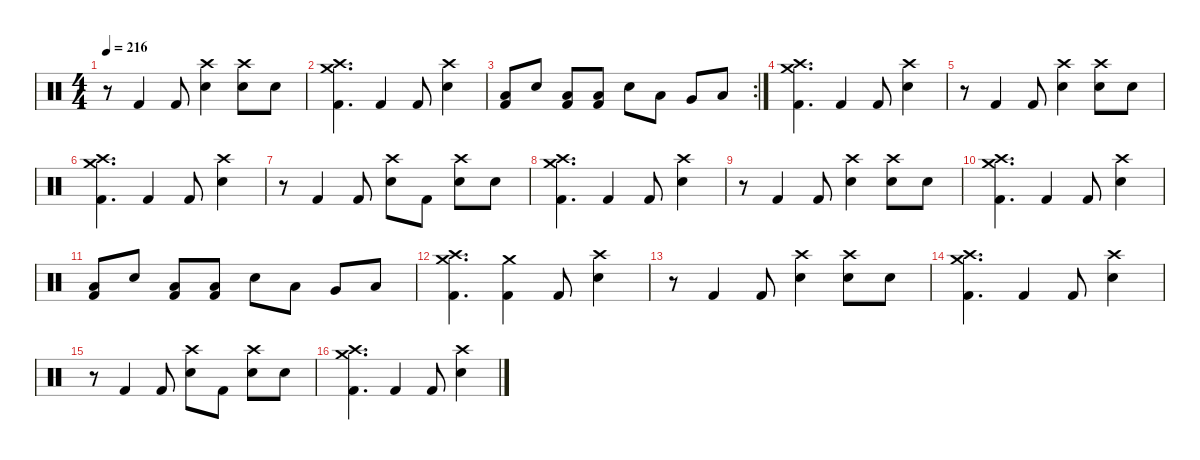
\defaultSystemsLayout 4
\hideDynamics
\bracketExtendMode nobrackets
\singleTrackTrackNamePolicy hidden
\multiTrackTrackNamePolicy hidden
\firstSystemTrackNameMode fullname
\otherSystemsTrackNameOrientation horizontal
\track ("Drums" "drm.") {defaultSystemsLayout 4 instrument percussion}
\staff {score}
\articulation defaults
\ts (4 4)
\tempo 216
\clef neutral
\ks c
r.8{dy f beam Down} "Kick (hit) 2".4{beam Up} "Kick (hit) 2".8{beam Up} ("Crash high (hit)" "Snare (hit) 2").4{beam Down} ("Crash high (hit)" "Snare (hit) 2").8{beam Down} "Snare (hit) 2".8{beam Down} |
("Crash high (hit)" "Crash medium (hit)" "Kick (hit) 2").4{d beam Down} "Kick (hit) 2".4{beam Up} "Kick (hit) 2".8{beam Up} ("Crash high (hit)" "Snare (hit) 2").4{beam Down} |
\rc 2
("Low Floor Tom (hit)" "Kick (hit) 2").8{beam Up} "Snare (hit) 2".8{beam Up} ("Low Floor Tom (hit)" "Kick (hit) 2").8{beam Up} ("Low Floor Tom (hit)" "Kick (hit) 2").8{beam Up} "Snare (hit) 2".8{beam Down} "Low Tom (hit)".8{beam Down} "Very Low Tom (hit)".8{beam Up} "Low Floor Tom (hit)".8{beam Up} |
("Crash high (hit)" "Crash medium (hit)" "Kick (hit) 2").4{d beam Down} "Kick (hit) 2".4{beam Up} "Kick (hit) 2".8{beam Up} ("Crash high (hit)" "Snare (hit) 2").4{beam Down} |
r.8{beam Down} "Kick (hit) 2".4{beam Up} "Kick (hit) 2".8{beam Up} ("Crash high (hit)" "Snare (hit) 2").4{beam Down} ("Crash high (hit)" "Snare (hit) 2").8{beam Down} "Snare (hit) 2".8{beam Down} |
("Crash high (hit)" "Crash medium (hit)" "Kick (hit) 2").4{d beam Down} "Kick (hit) 2".4{beam Up} "Kick (hit) 2".8{beam Up} ("Crash high (hit)" "Snare (hit) 2").4{beam Down} |
r.8{beam Down} "Kick (hit) 2".4{beam Up} "Kick (hit) 2".8{beam Up} ("Crash high (hit)" "Snare (hit) 2").8{beam Down} "Kick (hit) 2".8{beam Down} ("Crash high (hit)" "Snare (hit) 2").8{beam Down} "Snare (hit) 2".8{beam Down} |
("Crash high (hit)" "Crash medium (hit)" "Kick (hit) 2").4{d beam Down} "Kick (hit) 2".4{beam Up} "Kick (hit) 2".8{beam Up} ("Crash high (hit)" "Snare (hit) 2").4{beam Down} |
r.8{beam Down} "Kick (hit) 2".4{beam Up} "Kick (hit) 2".8{beam Up} ("Crash high (hit)" "Snare (hit) 2").4{beam Down} ("Crash high (hit)" "Snare (hit) 2").8{beam Down} "Snare (hit) 2".8{beam Down} |
("Crash high (hit)" "Crash medium (hit)" "Kick (hit) 2").4{d beam Down} "Kick (hit) 2".4{beam Up} "Kick (hit) 2".8{beam Up} ("Crash high (hit)" "Snare (hit) 2").4{beam Down} |
("Low Floor Tom (hit)" "Kick (hit) 2").8{beam Up} "Snare (hit) 2".8{beam Up} ("Low Floor Tom (hit)" "Kick (hit) 2").8{beam Up} ("Low Floor Tom (hit)" "Kick (hit) 2").8{beam Up} "Snare (hit) 2".8{beam Down} "Low Tom (hit)".8{beam Down} "Very Low Tom (hit)".8{beam Up} "Low Floor Tom (hit)".8{beam Up} |
("Crash high (hit)" "Crash medium (hit)" "Kick (hit) 2").4{d beam Down} ("Crash medium (hit)" "Kick (hit) 2").4{beam Down} "Kick (hit) 2".8{beam Up} ("Crash high (hit)" "Snare (hit) 2").4{beam Down} |
r.8{beam Down} "Kick (hit) 2".4{beam Up} "Kick (hit) 2".8{beam Up} ("Crash high (hit)" "Snare (hit) 2").4{beam Down} ("Crash high (hit)" "Snare (hit) 2").8{beam Down} "Snare (hit) 2".8{beam Down} |
("Crash high (hit)" "Crash medium (hit)" "Kick (hit) 2").4{d beam Down} "Kick (hit) 2".4{beam Up} "Kick (hit) 2".8{beam Up} ("Crash high (hit)" "Snare (hit) 2").4{beam Down} |
r.8{beam Down} "Kick (hit) 2".4{beam Up} "Kick (hit) 2".8{beam Up} ("Crash high (hit)" "Snare (hit) 2").8{beam Down} "Kick (hit) 2".8{beam Down} ("Crash high (hit)" "Snare (hit) 2").8{beam Down} "Snare (hit) 2".8{beam Down} |
("Crash high (hit)" "Crash medium (hit)" "Kick (hit) 2").4{d beam Down} "Kick (hit) 2".4{beam Up} "Kick (hit) 2".8{beam Up} ("Crash high (hit)" "Snare (hit) 2").4{beam Down}
